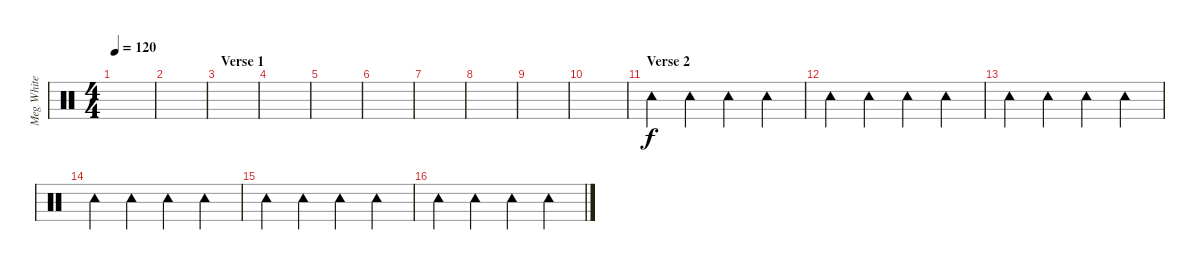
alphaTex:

\track ("Meg White" "Meg White") {instrument percussion}
\staff {score}
\articulation defaults
\ts (4 4)
\tempo 120
\clef neutral
\ks c
|
|
\section ("" "Verse 1")
|
|
|
|
|
|
|
|
\section ("" "Verse 2")
"Tambourine (hit)".4 "Tambourine (hit)".4 "Tambourine (hit)".4 "Tambourine (hit)".4 |
"Tambourine (hit)".4 "Tambourine (hit)".4 "Tambourine (hit)".4 "Tambourine (hit)".4 |
"Tambourine (hit)".4 "Tambourine (hit)".4 "Tambourine (hit)".4 "Tambourine (hit)".4 |
"Tambourine (hit)".4 "Tambourine (hit)".4 "Tambourine (hit)".4 "Tambourine (hit)".4 |
"Tambourine (hit)".4 "Tambourine (hit)".4 "Tambourine (hit)".4 "Tambourine (hit)".4 |
"Tambourine (hit)".4 "Tambourine (hit)".4 "Tambourine (hit)".4 "Tambourine (hit)".4
